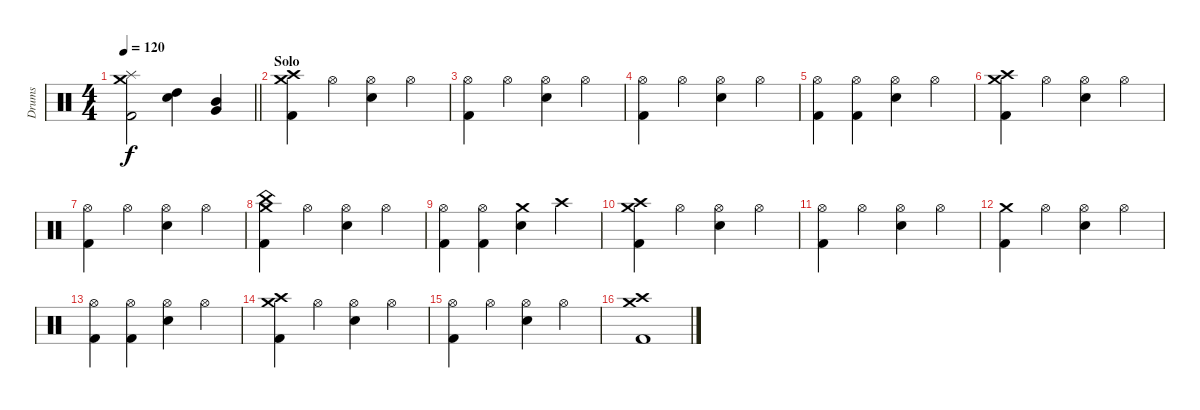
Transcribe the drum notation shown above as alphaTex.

\track ("Drums" "Drums") {instrument percussion}
\staff {score}
\articulation defaults
\ts (4 4)
\tempo 120
\clef neutral
\barLineRight lightlight
\ks c
("Crash medium (hit)" "Splash (hit)" "Kick (hit) 2").2{dy f} ("High Tom (hit)" "Snare (hit) 2").4 ("Mid Tom (hit)" "Very Low Tom (hit)").4 |
\section ("" "Solo")
("Crash high (hit)" "Crash medium (hit)" "Kick (hit) 2").4 "Hi-Hat (open)".4 ("Hi-Hat (open)" "Snare (hit) 2").4 "Hi-Hat (open)".4 |
("Hi-Hat (open)" "Kick (hit) 2").4 "Hi-Hat (open)".4 ("Hi-Hat (open)" "Snare (hit) 2").4 "Hi-Hat (open)".4 |
("Hi-Hat (open)" "Kick (hit) 2").4 "Hi-Hat (open)".4 ("Hi-Hat (open)" "Snare (hit) 2").4 "Hi-Hat (open)".4 |
("Hi-Hat (open)" "Kick (hit) 2").4 ("Hi-Hat (open)" "Kick (hit) 2").4 ("Hi-Hat (open)" "Snare (hit) 2").4 "Hi-Hat (open)".4 |
("Crash high (hit)" "Crash medium (hit)" "Kick (hit) 2").4 "Hi-Hat (open)".4 ("Hi-Hat (open)" "Snare (hit) 2").4 "Hi-Hat (open)".4 |
("Hi-Hat (open)" "Kick (hit) 2").4 "Hi-Hat (open)".4 ("Hi-Hat (open)" "Snare (hit) 2").4 "Hi-Hat (open)".4 |
("Crash medium (hit)" "China (hit)" "Kick (hit) 2").4 "Hi-Hat (open)".4 ("Hi-Hat (open)" "Snare (hit) 2").4 "Hi-Hat (open)".4 |
("Hi-Hat (open)" "Kick (hit) 2").4 ("Hi-Hat (open)" "Kick (hit) 2").4 ("Crash medium (hit)" "Snare (hit) 2").4 "Crash high (hit)".4 |
("Crash high (hit)" "Crash medium (hit)" "Kick (hit) 2").4 "Hi-Hat (open)".4 ("Hi-Hat (open)" "Snare (hit) 2").4 "Hi-Hat (open)".4 |
("Hi-Hat (open)" "Kick (hit) 2").4 "Hi-Hat (open)".4 ("Hi-Hat (open)" "Snare (hit) 2").4 "Hi-Hat (open)".4 |
("Crash medium (hit)" "Kick (hit) 2").4 "Hi-Hat (open)".4 ("Hi-Hat (open)" "Snare (hit) 2").4 "Hi-Hat (open)".4 |
("Hi-Hat (open)" "Kick (hit) 2").4 ("Hi-Hat (open)" "Kick (hit) 2").4 ("Hi-Hat (open)" "Snare (hit) 2").4 "Hi-Hat (open)".4 |
("Crash high (hit)" "Crash medium (hit)" "Kick (hit) 2").4 "Hi-Hat (open)".4 ("Hi-Hat (open)" "Snare (hit) 2").4 "Hi-Hat (open)".4 |
("Hi-Hat (open)" "Kick (hit) 2").4 "Hi-Hat (open)".4 ("Hi-Hat (open)" "Snare (hit) 2").4 "Hi-Hat (open)".4 |
("Crash high (hit)" "Crash medium (hit)" "Kick (hit) 2").1
